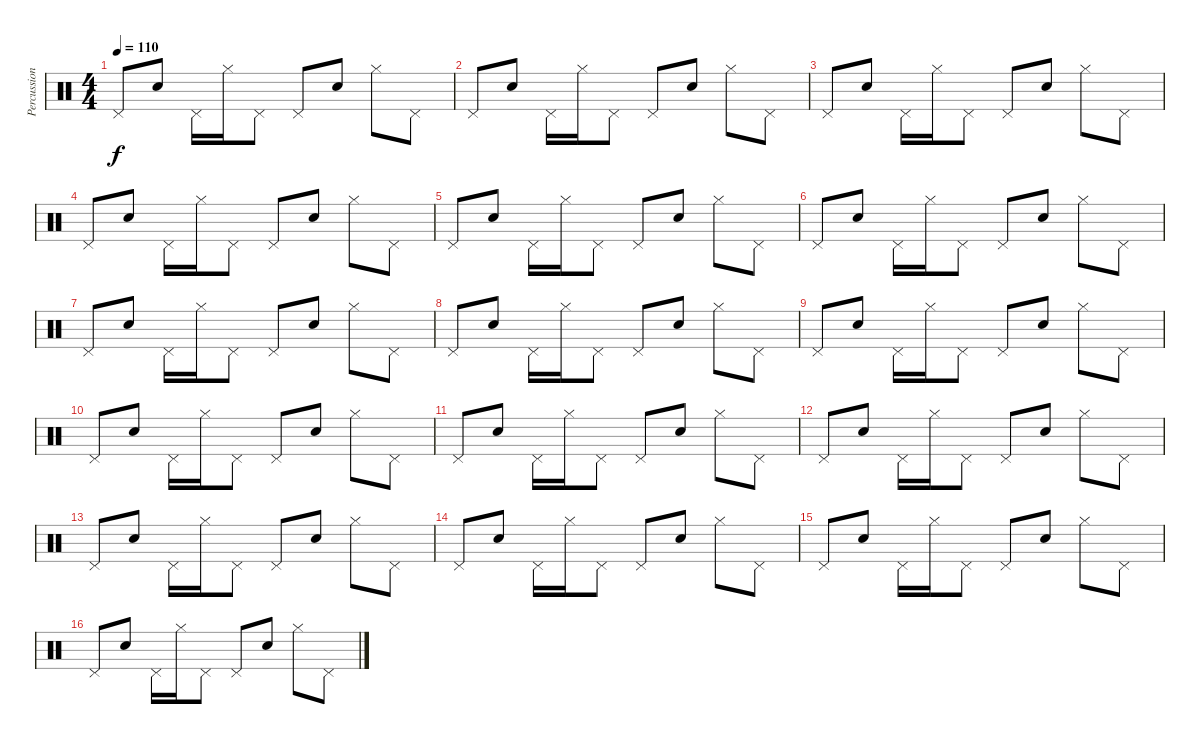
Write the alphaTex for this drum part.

\track ("Percussions" "Percussion") {instrument percussion}
\staff {score}
\articulation defaults
\ts (4 4)
\tempo 110
\clef neutral
\ks c "Pedal Hi-Hat (hit)".8{dy f} "Snare (hit) 2".8 "Pedal Hi-Hat (hit)".16 "Hi-Hat (closed)".16 "Pedal Hi-Hat (hit)".8 "Pedal Hi-Hat (hit)".8 "Snare (hit) 2".8 "Hi-Hat (closed)".8 "Pedal Hi-Hat (hit)".8
|
"Pedal Hi-Hat (hit)".8 "Snare (hit) 2".8 "Pedal Hi-Hat (hit)".16 "Hi-Hat (closed)".16 "Pedal Hi-Hat (hit)".8 "Pedal Hi-Hat (hit)".8 "Snare (hit) 2".8 "Hi-Hat (closed)".8 "Pedal Hi-Hat (hit)".8 |
"Pedal Hi-Hat (hit)".8 "Snare (hit) 2".8 "Pedal Hi-Hat (hit)".16 "Hi-Hat (closed)".16 "Pedal Hi-Hat (hit)".8 "Pedal Hi-Hat (hit)".8 "Snare (hit) 2".8 "Hi-Hat (closed)".8 "Pedal Hi-Hat (hit)".8 |
"Pedal Hi-Hat (hit)".8 "Snare (hit) 2".8 "Pedal Hi-Hat (hit)".16 "Hi-Hat (closed)".16 "Pedal Hi-Hat (hit)".8 "Pedal Hi-Hat (hit)".8 "Snare (hit) 2".8 "Hi-Hat (closed)".8 "Pedal Hi-Hat (hit)".8 |
"Pedal Hi-Hat (hit)".8 "Snare (hit) 2".8 "Pedal Hi-Hat (hit)".16 "Hi-Hat (closed)".16 "Pedal Hi-Hat (hit)".8 "Pedal Hi-Hat (hit)".8 "Snare (hit) 2".8 "Hi-Hat (closed)".8 "Pedal Hi-Hat (hit)".8 |
"Pedal Hi-Hat (hit)".8 "Snare (hit) 2".8 "Pedal Hi-Hat (hit)".16 "Hi-Hat (closed)".16 "Pedal Hi-Hat (hit)".8 "Pedal Hi-Hat (hit)".8 "Snare (hit) 2".8 "Hi-Hat (closed)".8 "Pedal Hi-Hat (hit)".8 |
"Pedal Hi-Hat (hit)".8 "Snare (hit) 2".8 "Pedal Hi-Hat (hit)".16 "Hi-Hat (closed)".16 "Pedal Hi-Hat (hit)".8 "Pedal Hi-Hat (hit)".8 "Snare (hit) 2".8 "Hi-Hat (closed)".8 "Pedal Hi-Hat (hit)".8 |
"Pedal Hi-Hat (hit)".8 "Snare (hit) 2".8 "Pedal Hi-Hat (hit)".16 "Hi-Hat (closed)".16 "Pedal Hi-Hat (hit)".8 "Pedal Hi-Hat (hit)".8 "Snare (hit) 2".8 "Hi-Hat (closed)".8 "Pedal Hi-Hat (hit)".8 |
"Pedal Hi-Hat (hit)".8 "Snare (hit) 2".8 "Pedal Hi-Hat (hit)".16 "Hi-Hat (closed)".16 "Pedal Hi-Hat (hit)".8 "Pedal Hi-Hat (hit)".8 "Snare (hit) 2".8 "Hi-Hat (closed)".8 "Pedal Hi-Hat (hit)".8 |
"Pedal Hi-Hat (hit)".8 "Snare (hit) 2".8 "Pedal Hi-Hat (hit)".16 "Hi-Hat (closed)".16 "Pedal Hi-Hat (hit)".8 "Pedal Hi-Hat (hit)".8 "Snare (hit) 2".8 "Hi-Hat (closed)".8 "Pedal Hi-Hat (hit)".8 |
"Pedal Hi-Hat (hit)".8 "Snare (hit) 2".8 "Pedal Hi-Hat (hit)".16 "Hi-Hat (closed)".16 "Pedal Hi-Hat (hit)".8 "Pedal Hi-Hat (hit)".8 "Snare (hit) 2".8 "Hi-Hat (closed)".8 "Pedal Hi-Hat (hit)".8 |
"Pedal Hi-Hat (hit)".8 "Snare (hit) 2".8 "Pedal Hi-Hat (hit)".16 "Hi-Hat (closed)".16 "Pedal Hi-Hat (hit)".8 "Pedal Hi-Hat (hit)".8 "Snare (hit) 2".8 "Hi-Hat (closed)".8 "Pedal Hi-Hat (hit)".8 |
"Pedal Hi-Hat (hit)".8 "Snare (hit) 2".8 "Pedal Hi-Hat (hit)".16 "Hi-Hat (closed)".16 "Pedal Hi-Hat (hit)".8 "Pedal Hi-Hat (hit)".8 "Snare (hit) 2".8 "Hi-Hat (closed)".8 "Pedal Hi-Hat (hit)".8 |
"Pedal Hi-Hat (hit)".8 "Snare (hit) 2".8 "Pedal Hi-Hat (hit)".16 "Hi-Hat (closed)".16 "Pedal Hi-Hat (hit)".8 "Pedal Hi-Hat (hit)".8 "Snare (hit) 2".8 "Hi-Hat (closed)".8 "Pedal Hi-Hat (hit)".8 |
"Pedal Hi-Hat (hit)".8 "Snare (hit) 2".8 "Pedal Hi-Hat (hit)".16 "Hi-Hat (closed)".16 "Pedal Hi-Hat (hit)".8 "Pedal Hi-Hat (hit)".8 "Snare (hit) 2".8 "Hi-Hat (closed)".8 "Pedal Hi-Hat (hit)".8 |
"Pedal Hi-Hat (hit)".8 "Snare (hit) 2".8 "Pedal Hi-Hat (hit)".16 "Hi-Hat (closed)".16 "Pedal Hi-Hat (hit)".8 "Pedal Hi-Hat (hit)".8 "Snare (hit) 2".8 "Hi-Hat (closed)".8 "Pedal Hi-Hat (hit)".8
